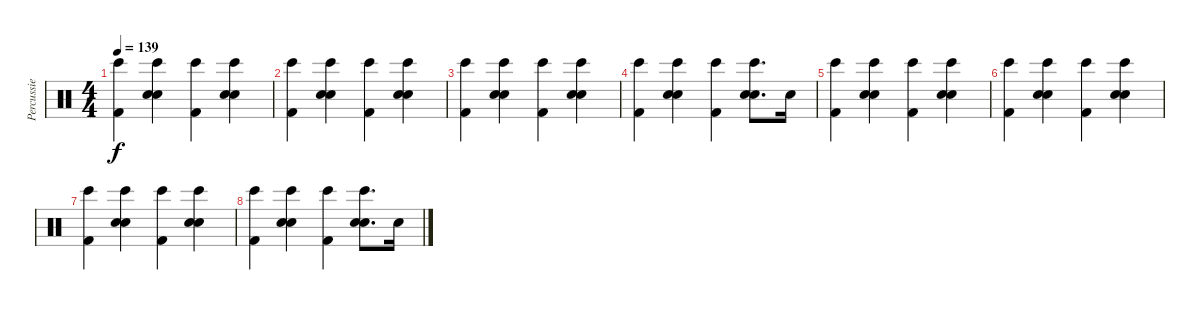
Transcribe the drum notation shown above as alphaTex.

\track ("Percussie" "Percussie") {instrument percussion}
\staff {score}
\articulation defaults
\ts (4 4)
\tempo 139
\clef neutral
\ks c
("Bongo High (hit)" "Kick (hit) 2").4{dy f} ("Bongo High (hit)" "Hand Clap (hit)" "Electric Snare (hit)").4 ("Bongo High (hit)" "Kick (hit) 2").4 ("Bongo High (hit)" "Hand Clap (hit)" "Electric Snare (hit)").4 |
("Bongo High (hit)" "Kick (hit) 2").4 ("Bongo High (hit)" "Hand Clap (hit)" "Electric Snare (hit)").4 ("Bongo High (hit)" "Kick (hit) 2").4 ("Bongo High (hit)" "Hand Clap (hit)" "Electric Snare (hit)").4 |
("Bongo High (hit)" "Kick (hit) 2").4 ("Bongo High (hit)" "Hand Clap (hit)" "Electric Snare (hit)").4 ("Bongo High (hit)" "Kick (hit) 2").4 ("Bongo High (hit)" "Hand Clap (hit)" "Electric Snare (hit)").4 |
("Bongo High (hit)" "Kick (hit) 2").4 ("Bongo High (hit)" "Hand Clap (hit)" "Electric Snare (hit)").4 ("Bongo High (hit)" "Kick (hit) 2").4 ("Bongo High (hit)" "Hand Clap (hit)" "Electric Snare (hit)").8{d} "Hand Clap (hit)".16 |
("Bongo High (hit)" "Kick (hit) 2").4 ("Bongo High (hit)" "Hand Clap (hit)" "Electric Snare (hit)").4 ("Bongo High (hit)" "Kick (hit) 2").4 ("Bongo High (hit)" "Hand Clap (hit)" "Electric Snare (hit)").4 |
("Bongo High (hit)" "Kick (hit) 2").4 ("Bongo High (hit)" "Hand Clap (hit)" "Electric Snare (hit)").4 ("Bongo High (hit)" "Kick (hit) 2").4 ("Bongo High (hit)" "Hand Clap (hit)" "Electric Snare (hit)").4 |
("Bongo High (hit)" "Kick (hit) 2").4 ("Bongo High (hit)" "Hand Clap (hit)" "Electric Snare (hit)").4 ("Bongo High (hit)" "Kick (hit) 2").4 ("Bongo High (hit)" "Hand Clap (hit)" "Electric Snare (hit)").4 |
("Bongo High (hit)" "Kick (hit) 2").4 ("Bongo High (hit)" "Hand Clap (hit)" "Electric Snare (hit)").4 ("Bongo High (hit)" "Kick (hit) 2").4 ("Bongo High (hit)" "Hand Clap (hit)" "Electric Snare (hit)").8{d} "Hand Clap (hit)".16
